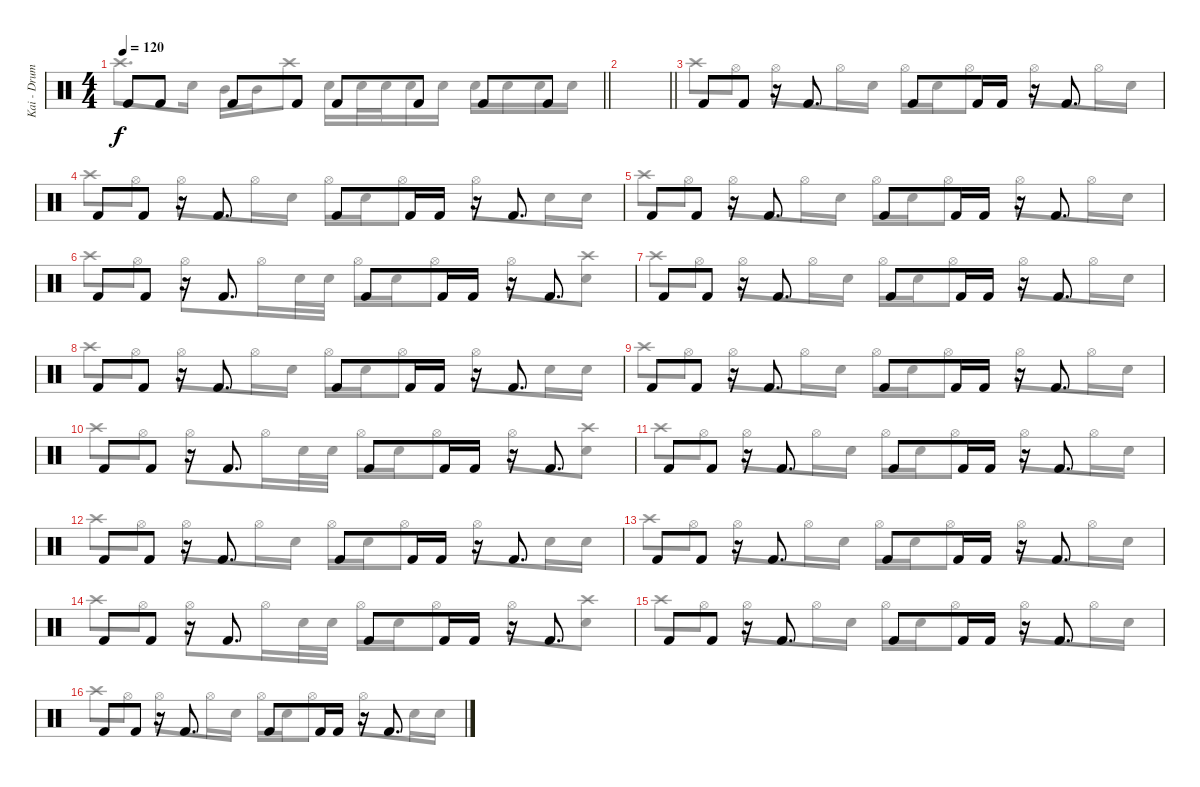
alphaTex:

\track ("Kai - Drums " "Kai - Drum") {instrument percussion}
\staff {score}
\articulation defaults
\voice
\ts (4 4)
\tempo 120
\clef neutral
\barLineRight lightlight
\ks c "Kick (hit) 2".8{dy f} "Kick (hit) 2".8 "Kick (hit) 2".8 "Kick (hit) 2".8 "Kick (hit) 2".8 "Kick (hit) 2".8 "Kick (hit) 2".8 "Kick (hit) 2".8
|
\barLineRight lightlight
|
"Kick (hit) 2".8 "Kick (hit) 2".8 r.16 "Kick (hit) 2".8{d} "Kick (hit) 2".8 "Kick (hit) 2".16 "Kick (hit) 2".16 r.16 "Kick (hit) 2".8{d} |
"Kick (hit) 2".8 "Kick (hit) 2".8 r.16 "Kick (hit) 2".8{d} "Kick (hit) 2".8 "Kick (hit) 2".16 "Kick (hit) 2".16 r.16 "Kick (hit) 2".8{d} |
"Kick (hit) 2".8 "Kick (hit) 2".8 r.16 "Kick (hit) 2".8{d} "Kick (hit) 2".8 "Kick (hit) 2".16 "Kick (hit) 2".16 r.16 "Kick (hit) 2".8{d} |
"Kick (hit) 2".8 "Kick (hit) 2".8 r.16 "Kick (hit) 2".8{d} "Kick (hit) 2".8 "Kick (hit) 2".16 "Kick (hit) 2".16 r.16 "Kick (hit) 2".8{d} |
"Kick (hit) 2".8 "Kick (hit) 2".8 r.16 "Kick (hit) 2".8{d} "Kick (hit) 2".8 "Kick (hit) 2".16 "Kick (hit) 2".16 r.16 "Kick (hit) 2".8{d} |
"Kick (hit) 2".8 "Kick (hit) 2".8 r.16 "Kick (hit) 2".8{d} "Kick (hit) 2".8 "Kick (hit) 2".16 "Kick (hit) 2".16 r.16 "Kick (hit) 2".8{d} |
"Kick (hit) 2".8 "Kick (hit) 2".8 r.16 "Kick (hit) 2".8{d} "Kick (hit) 2".8 "Kick (hit) 2".16 "Kick (hit) 2".16 r.16 "Kick (hit) 2".8{d} |
"Kick (hit) 2".8 "Kick (hit) 2".8 r.16 "Kick (hit) 2".8{d} "Kick (hit) 2".8 "Kick (hit) 2".16 "Kick (hit) 2".16 r.16 "Kick (hit) 2".8{d} |
"Kick (hit) 2".8 "Kick (hit) 2".8 r.16 "Kick (hit) 2".8{d} "Kick (hit) 2".8 "Kick (hit) 2".16 "Kick (hit) 2".16 r.16 "Kick (hit) 2".8{d} |
"Kick (hit) 2".8 "Kick (hit) 2".8 r.16 "Kick (hit) 2".8{d} "Kick (hit) 2".8 "Kick (hit) 2".16 "Kick (hit) 2".16 r.16 "Kick (hit) 2".8{d} |
"Kick (hit) 2".8 "Kick (hit) 2".8 r.16 "Kick (hit) 2".8{d} "Kick (hit) 2".8 "Kick (hit) 2".16 "Kick (hit) 2".16 r.16 "Kick (hit) 2".8{d} |
"Kick (hit) 2".8 "Kick (hit) 2".8 r.16 "Kick (hit) 2".8{d} "Kick (hit) 2".8 "Kick (hit) 2".16 "Kick (hit) 2".16 r.16 "Kick (hit) 2".8{d} |
"Kick (hit) 2".8 "Kick (hit) 2".8 r.16 "Kick (hit) 2".8{d} "Kick (hit) 2".8 "Kick (hit) 2".16 "Kick (hit) 2".16 r.16 "Kick (hit) 2".8{d} |
"Kick (hit) 2".8 "Kick (hit) 2".8 r.16 "Kick (hit) 2".8{d} "Kick (hit) 2".8 "Kick (hit) 2".16 "Kick (hit) 2".16 r.16 "Kick (hit) 2".8{d}
\voice
\clef neutral
\ottava regular
\simile none
\barLineRight lightlight
\ks c "Crash high (hit)".8{d dy f} "Electric Snare (hit)".16 "Mid Tom (hit)".16 "Mid Tom (hit)".16 "Crash high (hit)".8 "Electric Snare (hit)".16 "Electric Snare (hit)".32 "Electric Snare (hit)".32 "Electric Snare (hit)".16 "Electric Snare (hit)".16 "Electric Snare (hit)".16 "Electric Snare (hit)".16 "Electric Snare (hit)".16 "Electric Snare (hit)".16
|
\barLineRight lightlight
|
"Crash high (hit)".8 "Hi-Hat (open)".8 "Hi-Hat (open)".8 "Hi-Hat (open)".16 "Electric Snare (hit)".16 "Hi-Hat (open)".16 "Electric Snare (hit)".16 "Hi-Hat (open)".8 "Hi-Hat (open)".8 "Hi-Hat (open)".16 "Electric Snare (hit)".16 |
"Crash high (hit)".8 "Hi-Hat (open)".8 "Hi-Hat (open)".8 "Hi-Hat (open)".16 "Electric Snare (hit)".16 "Hi-Hat (open)".16 "Electric Snare (hit)".16 "Hi-Hat (open)".8 "Hi-Hat (open)".8 "Electric Snare (hit)".16 "Electric Snare (hit)".16 |
"Crash high (hit)".8 "Hi-Hat (open)".8 "Hi-Hat (open)".8 "Hi-Hat (open)".16 "Electric Snare (hit)".16 "Hi-Hat (open)".16 "Electric Snare (hit)".16 "Hi-Hat (open)".8 "Hi-Hat (open)".8 "Hi-Hat (open)".16 "Electric Snare (hit)".16 |
"Crash high (hit)".8 "Hi-Hat (open)".8 "Hi-Hat (open)".8 "Hi-Hat (open)".16 "Electric Snare (hit)".32 "Electric Snare (hit)".32 "Hi-Hat (open)".16 "Electric Snare (hit)".16 "Hi-Hat (open)".8 "Hi-Hat (open)".8 ("Crash high (hit)" "Electric Snare (hit)").8 |
"Crash high (hit)".8 "Hi-Hat (open)".8 "Hi-Hat (open)".8 "Hi-Hat (open)".16 "Electric Snare (hit)".16 "Hi-Hat (open)".16 "Electric Snare (hit)".16 "Hi-Hat (open)".8 "Hi-Hat (open)".8 "Hi-Hat (open)".16 "Electric Snare (hit)".16 |
"Crash high (hit)".8 "Hi-Hat (open)".8 "Hi-Hat (open)".8 "Hi-Hat (open)".16 "Electric Snare (hit)".16 "Hi-Hat (open)".16 "Electric Snare (hit)".16 "Hi-Hat (open)".8 "Hi-Hat (open)".8 "Electric Snare (hit)".16 "Electric Snare (hit)".16 |
"Crash high (hit)".8 "Hi-Hat (open)".8 "Hi-Hat (open)".8 "Hi-Hat (open)".16 "Electric Snare (hit)".16 "Hi-Hat (open)".16 "Electric Snare (hit)".16 "Hi-Hat (open)".8 "Hi-Hat (open)".8 "Hi-Hat (open)".16 "Electric Snare (hit)".16 |
"Crash high (hit)".8 "Hi-Hat (open)".8 "Hi-Hat (open)".8 "Hi-Hat (open)".16 "Electric Snare (hit)".32 "Electric Snare (hit)".32 "Hi-Hat (open)".16 "Electric Snare (hit)".16 "Hi-Hat (open)".8 "Hi-Hat (open)".8 ("Crash high (hit)" "Electric Snare (hit)").8 |
"Crash high (hit)".8 "Hi-Hat (open)".8 "Hi-Hat (open)".8 "Hi-Hat (open)".16 "Electric Snare (hit)".16 "Hi-Hat (open)".16 "Electric Snare (hit)".16 "Hi-Hat (open)".8 "Hi-Hat (open)".8 "Hi-Hat (open)".16 "Electric Snare (hit)".16 |
"Crash high (hit)".8 "Hi-Hat (open)".8 "Hi-Hat (open)".8 "Hi-Hat (open)".16 "Electric Snare (hit)".16 "Hi-Hat (open)".16 "Electric Snare (hit)".16 "Hi-Hat (open)".8 "Hi-Hat (open)".8 "Electric Snare (hit)".16 "Electric Snare (hit)".16 |
"Crash high (hit)".8 "Hi-Hat (open)".8 "Hi-Hat (open)".8 "Hi-Hat (open)".16 "Electric Snare (hit)".16 "Hi-Hat (open)".16 "Electric Snare (hit)".16 "Hi-Hat (open)".8 "Hi-Hat (open)".8 "Hi-Hat (open)".16 "Electric Snare (hit)".16 |
"Crash high (hit)".8 "Hi-Hat (open)".8 "Hi-Hat (open)".8 "Hi-Hat (open)".16 "Electric Snare (hit)".32 "Electric Snare (hit)".32 "Hi-Hat (open)".16 "Electric Snare (hit)".16 "Hi-Hat (open)".8 "Hi-Hat (open)".8 ("Crash high (hit)" "Electric Snare (hit)").8 |
"Crash high (hit)".8 "Hi-Hat (open)".8 "Hi-Hat (open)".8 "Hi-Hat (open)".16 "Electric Snare (hit)".16 "Hi-Hat (open)".16 "Electric Snare (hit)".16 "Hi-Hat (open)".8 "Hi-Hat (open)".8 "Hi-Hat (open)".16 "Electric Snare (hit)".16 |
"Crash high (hit)".8 "Hi-Hat (open)".8 "Hi-Hat (open)".8 "Hi-Hat (open)".16 "Electric Snare (hit)".16 "Hi-Hat (open)".16 "Electric Snare (hit)".16 "Hi-Hat (open)".8 "Hi-Hat (open)".8 "Electric Snare (hit)".16 "Electric Snare (hit)".16
